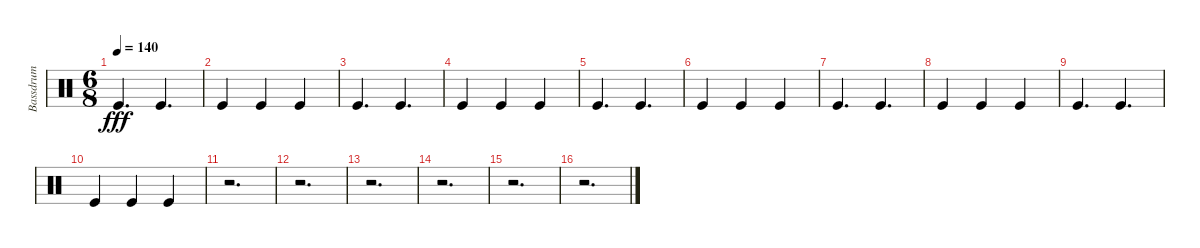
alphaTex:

\track ("Bassdrum" "Bassdrum") {instrument percussion}
\staff {score}
\articulation defaults
\ts (6 8)
\tempo 140
\clef neutral
\ks c "Kick (hit)".4{d dy fff} "Kick (hit)".4{d}
|
"Kick (hit)".4 "Kick (hit)".4 "Kick (hit)".4 |
"Kick (hit)".4{d} "Kick (hit)".4{d} |
"Kick (hit)".4 "Kick (hit)".4 "Kick (hit)".4 |
"Kick (hit)".4{d} "Kick (hit)".4{d} |
"Kick (hit)".4 "Kick (hit)".4 "Kick (hit)".4 |
"Kick (hit)".4{d} "Kick (hit)".4{d} |
"Kick (hit)".4 "Kick (hit)".4 "Kick (hit)".4 |
"Kick (hit)".4{d} "Kick (hit)".4{d} |
"Kick (hit)".4 "Kick (hit)".4 "Kick (hit)".4 |
r.2{d} |
r.2{d} |
r.2{d} |
r.2{d} |
r.2{d} |
r.2{d}
